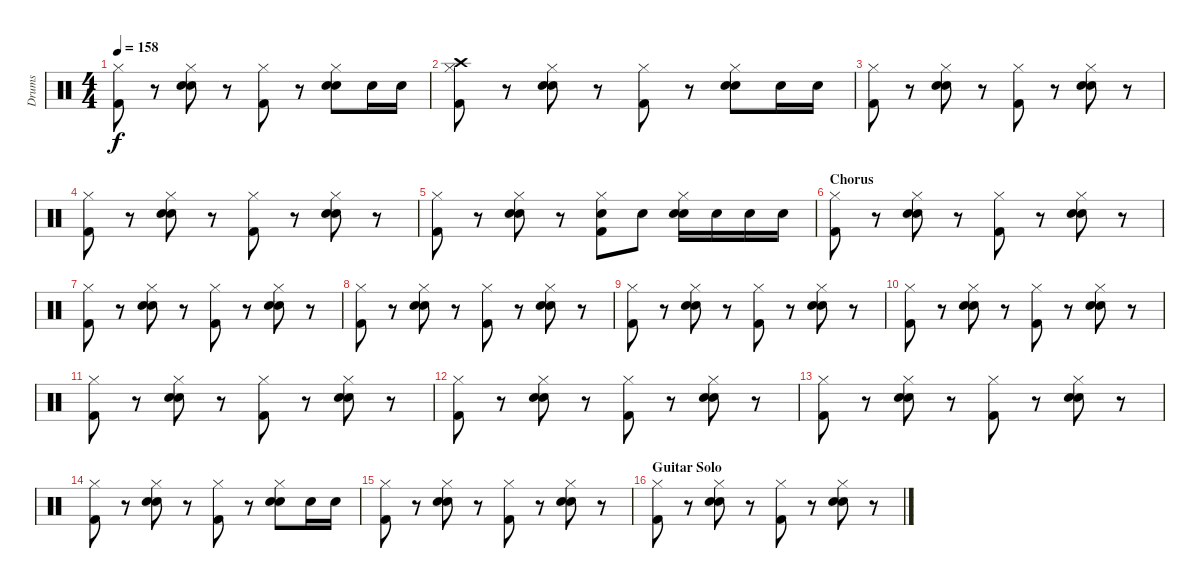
\track ("Drums" "Drums") {instrument percussion}
\staff {score}
\articulation defaults
\ts (4 4)
\tempo 158
\clef neutral
\ks c
("Hi-Hat (closed)" "Kick (hit) 2").8{dy f} r.8 ("Hi-Hat (closed)" "Snare (hit) 2" "Snare (hit) 2").8 r.8 ("Hi-Hat (closed)" "Kick (hit) 2").8 r.8 ("Hi-Hat (closed)" "Snare (hit) 2" "Snare (hit) 2").8 "Snare (hit) 2".16 "Snare (hit) 2".16 |
("Hi-Hat (closed)" "Crash high (hit)" "Kick (hit) 2").8 r.8 ("Hi-Hat (closed)" "Snare (hit) 2" "Snare (hit) 2").8 r.8 ("Hi-Hat (closed)" "Kick (hit) 2").8 r.8 ("Hi-Hat (closed)" "Snare (hit) 2" "Snare (hit) 2").8 "Snare (hit) 2".16 "Snare (hit) 2".16 |
("Hi-Hat (closed)" "Kick (hit) 2").8 r.8 ("Hi-Hat (closed)" "Snare (hit) 2" "Snare (hit) 2").8 r.8 ("Hi-Hat (closed)" "Kick (hit) 2").8 r.8 ("Hi-Hat (closed)" "Snare (hit) 2" "Snare (hit) 2").8 r.8 |
("Hi-Hat (closed)" "Kick (hit) 2").8 r.8 ("Hi-Hat (closed)" "Snare (hit) 2" "Snare (hit) 2").8 r.8 ("Hi-Hat (closed)" "Kick (hit) 2").8 r.8 ("Hi-Hat (closed)" "Snare (hit) 2" "Snare (hit) 2").8 r.8 |
("Hi-Hat (closed)" "Kick (hit) 2").8 r.8 ("Hi-Hat (closed)" "Snare (hit) 2" "Snare (hit) 2").8 r.8 ("Hi-Hat (closed)" "Snare (hit) 2" "Kick (hit) 2").8 "Snare (hit) 2".8 ("Hi-Hat (closed)" "Snare (hit) 2" "Snare (hit) 2").16 "Snare (hit) 2".16 "Snare (hit) 2".16 "Snare (hit) 2".16 |
\section ("" "Chorus")
("Hi-Hat (closed)" "Kick (hit) 2").8 r.8 ("Hi-Hat (closed)" "Snare (hit) 2" "Snare (hit) 2").8 r.8 ("Hi-Hat (closed)" "Kick (hit) 2").8 r.8 ("Hi-Hat (closed)" "Snare (hit) 2" "Snare (hit) 2").8 r.8 |
("Hi-Hat (closed)" "Kick (hit) 2").8 r.8 ("Hi-Hat (closed)" "Snare (hit) 2" "Snare (hit) 2").8 r.8 ("Hi-Hat (closed)" "Kick (hit) 2").8 r.8 ("Hi-Hat (closed)" "Snare (hit) 2" "Snare (hit) 2").8 r.8 |
("Hi-Hat (closed)" "Kick (hit) 2").8 r.8 ("Hi-Hat (closed)" "Snare (hit) 2" "Snare (hit) 2").8 r.8 ("Hi-Hat (closed)" "Kick (hit) 2").8 r.8 ("Hi-Hat (closed)" "Snare (hit) 2" "Snare (hit) 2").8 r.8 |
("Hi-Hat (closed)" "Kick (hit) 2").8 r.8 ("Hi-Hat (closed)" "Snare (hit) 2" "Snare (hit) 2").8 r.8 ("Hi-Hat (closed)" "Kick (hit) 2").8 r.8 ("Hi-Hat (closed)" "Snare (hit) 2" "Snare (hit) 2").8 r.8 |
("Hi-Hat (closed)" "Kick (hit) 2").8 r.8 ("Hi-Hat (closed)" "Snare (hit) 2" "Snare (hit) 2").8 r.8 ("Hi-Hat (closed)" "Kick (hit) 2").8 r.8 ("Hi-Hat (closed)" "Snare (hit) 2" "Snare (hit) 2").8 r.8 |
("Hi-Hat (closed)" "Kick (hit) 2").8 r.8 ("Hi-Hat (closed)" "Snare (hit) 2" "Snare (hit) 2").8 r.8 ("Hi-Hat (closed)" "Kick (hit) 2").8 r.8 ("Hi-Hat (closed)" "Snare (hit) 2" "Snare (hit) 2").8 r.8 |
("Hi-Hat (closed)" "Kick (hit) 2").8 r.8 ("Hi-Hat (closed)" "Snare (hit) 2" "Snare (hit) 2").8 r.8 ("Hi-Hat (closed)" "Kick (hit) 2").8 r.8 ("Hi-Hat (closed)" "Snare (hit) 2" "Snare (hit) 2").8 r.8 |
("Hi-Hat (closed)" "Kick (hit) 2").8 r.8 ("Hi-Hat (closed)" "Snare (hit) 2" "Snare (hit) 2").8 r.8 ("Hi-Hat (closed)" "Kick (hit) 2").8 r.8 ("Hi-Hat (closed)" "Snare (hit) 2" "Snare (hit) 2").8 r.8 |
("Hi-Hat (closed)" "Kick (hit) 2").8 r.8 ("Hi-Hat (closed)" "Snare (hit) 2" "Snare (hit) 2").8 r.8 ("Hi-Hat (closed)" "Kick (hit) 2").8 r.8 ("Hi-Hat (closed)" "Snare (hit) 2" "Snare (hit) 2").8 "Snare (hit) 2".16 "Snare (hit) 2".16 |
("Hi-Hat (closed)" "Kick (hit) 2").8 r.8 ("Hi-Hat (closed)" "Snare (hit) 2" "Snare (hit) 2").8 r.8 ("Hi-Hat (closed)" "Kick (hit) 2").8 r.8 ("Hi-Hat (closed)" "Snare (hit) 2" "Snare (hit) 2").8 r.8 |
\section ("" "Guitar Solo")
("Hi-Hat (closed)" "Kick (hit) 2").8 r.8 ("Hi-Hat (closed)" "Snare (hit) 2" "Snare (hit) 2").8 r.8 ("Hi-Hat (closed)" "Kick (hit) 2").8 r.8 ("Hi-Hat (closed)" "Snare (hit) 2" "Snare (hit) 2").8 r.8
